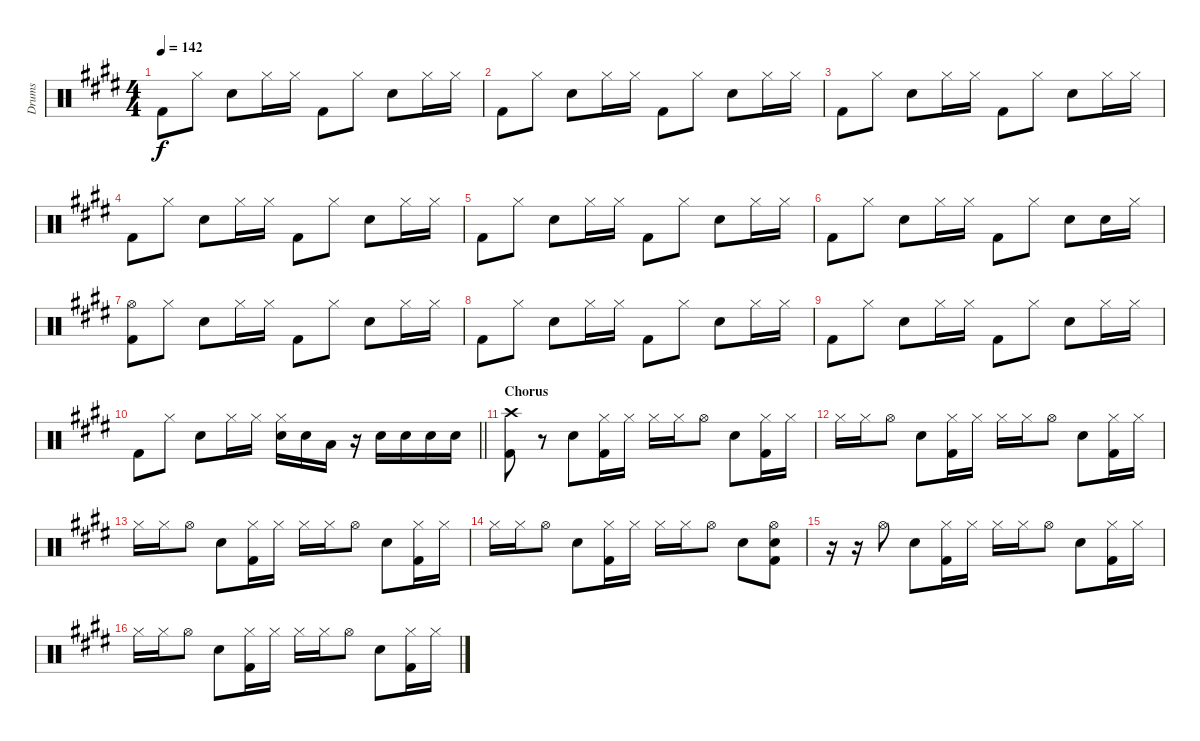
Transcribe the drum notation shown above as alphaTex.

\track ("Drums" "Drums") {instrument percussion}
\staff {score}
\articulation defaults
\ts (4 4)
\tempo 142
\clef neutral
\ks e "Kick (hit) 2".8{dy f} "Hi-Hat (closed)".8 "Electric Snare (hit)".8 "Hi-Hat (closed)".16 "Hi-Hat (closed)".16 "Kick (hit) 2".8 "Hi-Hat (closed)".8 "Electric Snare (hit)".8 "Hi-Hat (closed)".16 "Hi-Hat (closed)".16
|
"Kick (hit) 2".8 "Hi-Hat (closed)".8 "Electric Snare (hit)".8 "Hi-Hat (closed)".16 "Hi-Hat (closed)".16 "Kick (hit) 2".8 "Hi-Hat (closed)".8 "Electric Snare (hit)".8 "Hi-Hat (closed)".16 "Hi-Hat (closed)".16 |
"Kick (hit) 2".8 "Hi-Hat (closed)".8 "Electric Snare (hit)".8 "Hi-Hat (closed)".16 "Hi-Hat (closed)".16 "Kick (hit) 2".8 "Hi-Hat (closed)".8 "Electric Snare (hit)".8 "Hi-Hat (closed)".16 "Hi-Hat (closed)".16 |
"Kick (hit) 2".8 "Hi-Hat (closed)".8 "Electric Snare (hit)".8 "Hi-Hat (closed)".16 "Hi-Hat (closed)".16 "Kick (hit) 2".8 "Hi-Hat (closed)".8 "Electric Snare (hit)".8 "Hi-Hat (closed)".16 "Hi-Hat (closed)".16 |
"Kick (hit) 2".8 "Hi-Hat (closed)".8 "Electric Snare (hit)".8 "Hi-Hat (closed)".16 "Hi-Hat (closed)".16 "Kick (hit) 2".8 "Hi-Hat (closed)".8 "Electric Snare (hit)".8 "Hi-Hat (closed)".16 "Hi-Hat (closed)".16 |
"Kick (hit) 2".8 "Hi-Hat (closed)".8 "Electric Snare (hit)".8 "Hi-Hat (closed)".16 "Hi-Hat (closed)".16 "Kick (hit) 2".8 "Hi-Hat (closed)".8 "Electric Snare (hit)".8 "Electric Snare (hit)".16 "Hi-Hat (closed)".16 |
("Hi-Hat (open)" "Kick (hit) 2").8 "Hi-Hat (closed)".8 "Electric Snare (hit)".8 "Hi-Hat (closed)".16 "Hi-Hat (closed)".16 "Kick (hit) 2".8 "Hi-Hat (closed)".8 "Electric Snare (hit)".8 "Hi-Hat (closed)".16 "Hi-Hat (closed)".16 |
"Kick (hit) 2".8 "Hi-Hat (closed)".8 "Electric Snare (hit)".8 "Hi-Hat (closed)".16 "Hi-Hat (closed)".16 "Kick (hit) 2".8 "Hi-Hat (closed)".8 "Electric Snare (hit)".8 "Hi-Hat (closed)".16 "Hi-Hat (closed)".16 |
"Kick (hit) 2".8 "Hi-Hat (closed)".8 "Electric Snare (hit)".8 "Hi-Hat (closed)".16 "Hi-Hat (closed)".16 "Kick (hit) 2".8 "Hi-Hat (closed)".8 "Electric Snare (hit)".8 "Hi-Hat (closed)".16 "Hi-Hat (closed)".16 |
\barLineRight lightlight "Kick (hit) 2".8 "Hi-Hat (closed)".8 "Electric Snare (hit)".8 "Hi-Hat (closed)".16 "Hi-Hat (closed)".16
("Hi-Hat (closed)" "Electric Snare (hit)").16 "Electric Snare (hit)".16 "Low Tom (hit)".16 r.16 "Electric Snare (hit)".16 "Electric Snare (hit)".16 "Electric Snare (hit)".16 "Electric Snare (hit)".16 |
\section ("" "Chorus")
("Crash high (hit)" "Kick (hit) 2").8 r.8 "Electric Snare (hit)".8 ("Hi-Hat (closed)" "Kick (hit) 2").16 "Hi-Hat (closed)".16 "Hi-Hat (closed)".16 "Hi-Hat (closed)".16 "Hi-Hat (open)".8 "Electric Snare (hit)".8 ("Hi-Hat (closed)" "Kick (hit) 2").16 "Hi-Hat (closed)".16 |
"Hi-Hat (closed)".16 "Hi-Hat (closed)".16 "Hi-Hat (open)".8 "Electric Snare (hit)".8 ("Hi-Hat (closed)" "Kick (hit) 2").16 "Hi-Hat (closed)".16 "Hi-Hat (closed)".16 "Hi-Hat (closed)".16 "Hi-Hat (open)".8 "Electric Snare (hit)".8 ("Hi-Hat (closed)" "Kick (hit) 2").16 "Hi-Hat (closed)".16 |
"Hi-Hat (closed)".16 "Hi-Hat (closed)".16 "Hi-Hat (open)".8 "Electric Snare (hit)".8 ("Hi-Hat (closed)" "Kick (hit) 2").16 "Hi-Hat (closed)".16 "Hi-Hat (closed)".16 "Hi-Hat (closed)".16 "Hi-Hat (open)".8 "Electric Snare (hit)".8 ("Hi-Hat (closed)" "Kick (hit) 2").16 "Hi-Hat (closed)".16 |
"Hi-Hat (closed)".16 "Hi-Hat (closed)".16 "Hi-Hat (open)".8 "Electric Snare (hit)".8 ("Hi-Hat (closed)" "Kick (hit) 2").16 "Hi-Hat (closed)".16 "Hi-Hat (closed)".16 "Hi-Hat (closed)".16 "Hi-Hat (open)".8 "Electric Snare (hit)".8 ("Hi-Hat (open)" "Electric Snare (hit)" "Kick (hit) 2").8 |
r.16 r.16 "Hi-Hat (open)".8 "Electric Snare (hit)".8 ("Hi-Hat (closed)" "Kick (hit) 2").16 "Hi-Hat (closed)".16 "Hi-Hat (closed)".16 "Hi-Hat (closed)".16 "Hi-Hat (open)".8 "Electric Snare (hit)".8 ("Hi-Hat (closed)" "Kick (hit) 2").16 "Hi-Hat (closed)".16 |
"Hi-Hat (closed)".16 "Hi-Hat (closed)".16 "Hi-Hat (open)".8 "Electric Snare (hit)".8 ("Hi-Hat (closed)" "Kick (hit) 2").16 "Hi-Hat (closed)".16 "Hi-Hat (closed)".16 "Hi-Hat (closed)".16 "Hi-Hat (open)".8 "Electric Snare (hit)".8 ("Hi-Hat (closed)" "Kick (hit) 2").16 "Hi-Hat (closed)".16
